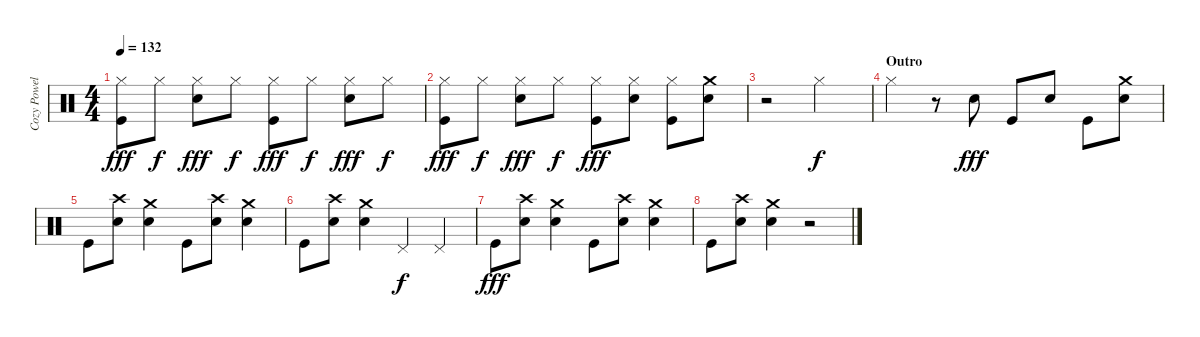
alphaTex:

\track ("Cozy Powell" "Cozy Powel") {instrument percussion}
\staff {score}
\articulation defaults
\ts (4 4)
\tempo 132
\clef neutral
\ks c
("Kick (hit)" "Hi-Hat (closed)").8{dy fff} "Hi-Hat (closed)".8{dy f} ("Snare (hit) 2" "Hi-Hat (closed)").8{dy fff} "Hi-Hat (closed)".8{dy f} ("Kick (hit)" "Hi-Hat (closed)").8{dy fff} "Hi-Hat (closed)".8{dy f} ("Snare (hit) 2" "Hi-Hat (closed)").8{dy fff} "Hi-Hat (closed)".8{dy f} |
("Kick (hit)" "Hi-Hat (closed)").8{dy fff} "Hi-Hat (closed)".8{dy f} ("Snare (hit) 2" "Hi-Hat (closed)").8{dy fff} "Hi-Hat (closed)".8{dy f} ("Kick (hit)" "Hi-Hat (closed)").8{dy fff} ("Snare (hit) 2" "Hi-Hat (closed)").8 ("Kick (hit)" "Hi-Hat (closed)").8 ("Snare (hit) 2" "Crash medium (hit)").8 |
r.2 "Hi-Hat (closed)".2{dy f} |
\section ("" "Outro")
"Hi-Hat (closed)".4 r.8 "Snare (hit) 2".8{dy fff} "Kick (hit)".8 "Snare (hit) 2".8 "Kick (hit)".8 ("Snare (hit) 2" "Crash medium (hit)").8 |
"Kick (hit)".8 ("Snare (hit) 2" "Crash high (hit)").8 ("Snare (hit) 2" "Crash medium (hit)").4 "Kick (hit)".8 ("Snare (hit) 2" "Crash high (hit)").8 ("Snare (hit) 2" "Crash medium (hit)").4 |
"Kick (hit)".8 ("Snare (hit) 2" "Crash high (hit)").8 ("Snare (hit) 2" "Crash medium (hit)").4 "Pedal Hi-Hat (hit)".4{dy f} "Pedal Hi-Hat (hit)".4 |
"Kick (hit)".8{dy fff} ("Snare (hit) 2" "Crash high (hit)").8 ("Snare (hit) 2" "Crash medium (hit)").4 "Kick (hit)".8 ("Snare (hit) 2" "Crash high (hit)").8 ("Snare (hit) 2" "Crash medium (hit)").4 |
"Kick (hit)".8 ("Snare (hit) 2" "Crash high (hit)").8 ("Snare (hit) 2" "Crash medium (hit)").4 r.2
